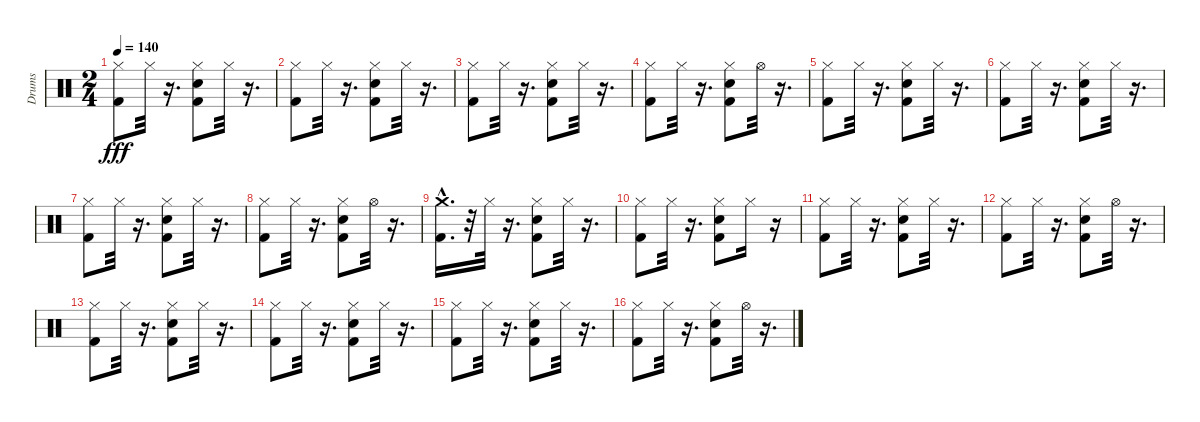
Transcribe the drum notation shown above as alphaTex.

\track ("Drums" "Drums") {instrument percussion}
\staff {score}
\articulation defaults
\ts (2 4)
\tempo 140
\clef neutral
\ks c
("Kick (hit) 2" "Hi-Hat (closed)").8{dy fff} "Hi-Hat (closed)".32 r.16{d} ("Snare (hit) 2" "Kick (hit) 2" "Hi-Hat (closed)").8 "Hi-Hat (closed)".32 r.16{d} |
("Kick (hit) 2" "Hi-Hat (closed)").8 "Hi-Hat (closed)".32 r.16{d} ("Snare (hit) 2" "Kick (hit) 2" "Hi-Hat (closed)").8 "Hi-Hat (closed)".32 r.16{d} |
("Kick (hit) 2" "Hi-Hat (closed)").8 "Hi-Hat (closed)".32 r.16{d} ("Kick (hit) 2" "Hi-Hat (closed)" "Snare (hit) 2").8 "Hi-Hat (closed)".32 r.16{d} |
("Kick (hit) 2" "Hi-Hat (closed)").8 "Hi-Hat (closed)".32 r.16{d} ("Snare (hit) 2" "Kick (hit) 2" "Hi-Hat (closed)").8 "Hi-Hat (open)".32 r.16{d} |
("Kick (hit) 2" "Hi-Hat (closed)").8 "Hi-Hat (closed)".32 r.16{d} ("Snare (hit) 2" "Kick (hit) 2" "Hi-Hat (closed)").8 "Hi-Hat (closed)".32 r.16{d} |
("Kick (hit) 2" "Hi-Hat (closed)").8 "Hi-Hat (closed)".32 r.16{d} ("Snare (hit) 2" "Kick (hit) 2" "Hi-Hat (closed)").8 "Hi-Hat (closed)".32 r.16{d} |
("Kick (hit) 2" "Hi-Hat (closed)").8 "Hi-Hat (closed)".32 r.16{d} ("Snare (hit) 2" "Kick (hit) 2" "Hi-Hat (closed)").8 "Hi-Hat (closed)".32 r.16{d} |
("Kick (hit) 2" "Hi-Hat (closed)").8 "Hi-Hat (closed)".32 r.16{d} ("Snare (hit) 2" "Kick (hit) 2" "Hi-Hat (closed)").8 "Hi-Hat (open)".32 r.16{d} |
("Crash medium (hit)" "Kick (hit) 2"{hac}).16{d} r.32 "Hi-Hat (closed)".32 r.16{d} ("Snare (hit) 2" "Hi-Hat (closed)" "Kick (hit) 2").8 "Hi-Hat (closed)".32 r.16{d} |
("Kick (hit) 2" "Hi-Hat (closed)").8 "Hi-Hat (closed)".32 r.16{d} ("Snare (hit) 2" "Kick (hit) 2" "Hi-Hat (closed)").8 "Hi-Hat (closed)".16 r.16 |
("Kick (hit) 2" "Hi-Hat (closed)").8 "Hi-Hat (closed)".32 r.16{d} ("Snare (hit) 2" "Kick (hit) 2" "Hi-Hat (closed)").8 "Hi-Hat (closed)".32 r.16{d} |
("Kick (hit) 2" "Hi-Hat (closed)").8 "Hi-Hat (closed)".32 r.16{d} ("Kick (hit) 2" "Snare (hit) 2" "Hi-Hat (closed)").8 "Hi-Hat (open)".32 r.16{d} |
("Kick (hit) 2" "Hi-Hat (closed)").8 "Hi-Hat (closed)".32 r.16{d} ("Hi-Hat (closed)" "Snare (hit) 2" "Kick (hit) 2").8 "Hi-Hat (closed)".32 r.16{d} |
("Kick (hit) 2" "Hi-Hat (closed)").8 "Hi-Hat (closed)".32 r.16{d} ("Snare (hit) 2" "Kick (hit) 2" "Hi-Hat (closed)").8 "Hi-Hat (closed)".32 r.16{d} |
("Kick (hit) 2" "Hi-Hat (closed)").8 "Hi-Hat (closed)".32 r.16{d} ("Kick (hit) 2" "Hi-Hat (closed)" "Snare (hit) 2").8 "Hi-Hat (closed)".32 r.16{d} |
("Kick (hit) 2" "Hi-Hat (closed)").8 "Hi-Hat (closed)".32 r.16{d} ("Snare (hit) 2" "Kick (hit) 2" "Hi-Hat (closed)").8 "Hi-Hat (open)".32 r.16{d}
